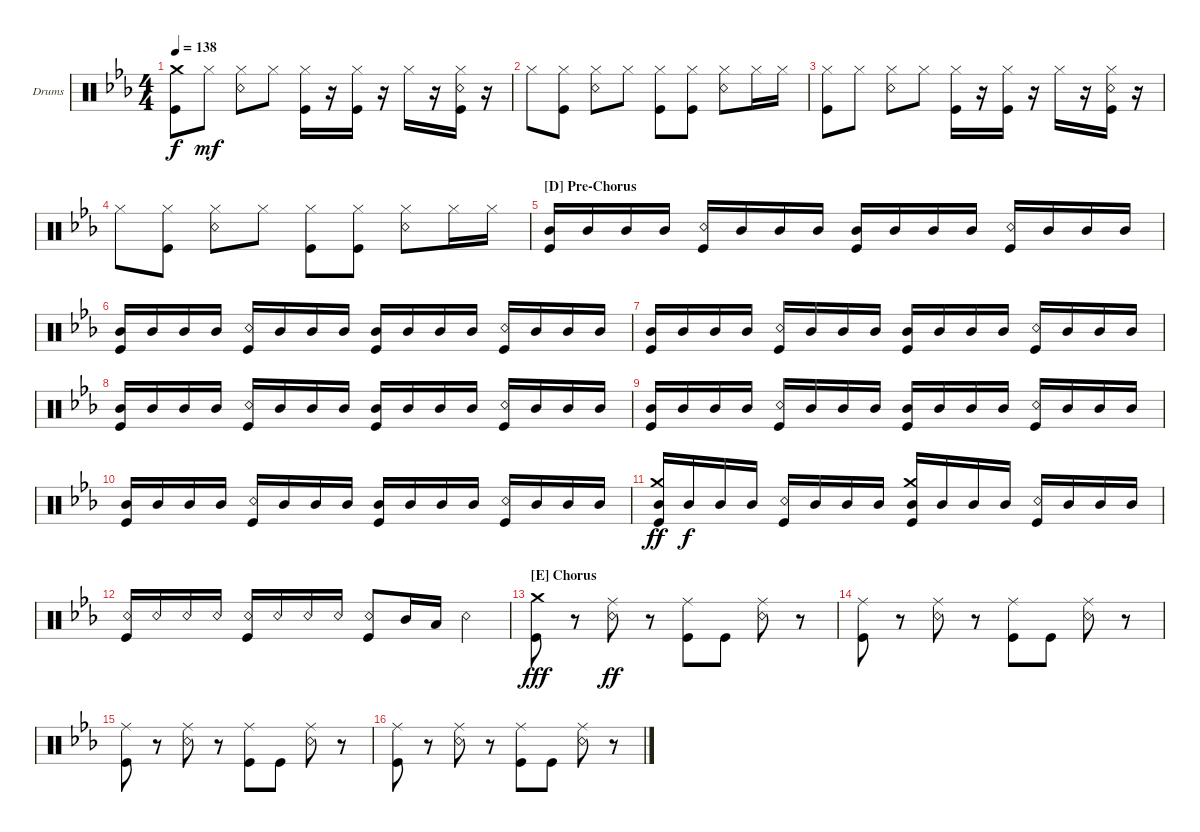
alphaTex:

\defaultSystemsLayout 4
\bracketExtendMode groupsimilarinstruments
\firstSystemTrackNameOrientation horizontal
\otherSystemsTrackNameOrientation horizontal
\track ("Drums" "Drums") {instrument percussion}
\staff {score}
\articulation defaults
\ts (4 4)
\tempo 138
\clef neutral
\ks eb
("Kick (hit)" "Crash medium (hit)").8{dy f} "Hi-Hat (closed)".8{dy mf} ("Hi-Hat (closed)" "Snare (rim shot)").8 "Hi-Hat (closed)".8 ("Hi-Hat (closed)" "Kick (hit)").16 r.16 ("Kick (hit)" "Hi-Hat (closed)").16 r.16 "Hi-Hat (closed)".16 r.16 ("Kick (hit)" "Hi-Hat (closed)" "Snare (rim shot)").16 r.16 |
"Hi-Hat (closed)".8 ("Kick (hit)" "Hi-Hat (closed)").8 ("Hi-Hat (closed)" "Snare (rim shot)").8 "Hi-Hat (closed)".8 ("Hi-Hat (closed)" "Kick (hit)").8 ("Kick (hit)" "Hi-Hat (closed)").8 ("Hi-Hat (closed)" "Snare (rim shot)").8 "Hi-Hat (closed)".16 "Hi-Hat (closed)".16 |
("Kick (hit)" "Hi-Hat (closed)").8 "Hi-Hat (closed)".8 ("Hi-Hat (closed)" "Snare (rim shot)").8 "Hi-Hat (closed)".8 ("Hi-Hat (closed)" "Kick (hit)").16 r.16 ("Kick (hit)" "Hi-Hat (closed)").16 r.16 "Hi-Hat (closed)".16 r.16 ("Kick (hit)" "Hi-Hat (closed)" "Snare (rim shot)").16 r.16 |
"Hi-Hat (closed)".8 ("Kick (hit)" "Hi-Hat (closed)").8 ("Hi-Hat (closed)" "Snare (rim shot)").8 "Hi-Hat (closed)".8 ("Hi-Hat (closed)" "Kick (hit)").8 ("Kick (hit)" "Hi-Hat (closed)").8 ("Hi-Hat (closed)" "Snare (rim shot)").8 "Hi-Hat (closed)".16 "Hi-Hat (closed)".16 |
\section ("D" "Pre-Chorus")
("Mid Tom (hit)" "Kick (hit)").16 "Mid Tom (hit)".16 "Mid Tom (hit)".16 "Mid Tom (hit)".16 ("Snare (rim shot)" "Kick (hit)").16 "Mid Tom (hit)".16 "Mid Tom (hit)".16 "Mid Tom (hit)".16 ("Mid Tom (hit)" "Kick (hit)").16 "Mid Tom (hit)".16 "Mid Tom (hit)".16 "Mid Tom (hit)".16 ("Snare (rim shot)" "Kick (hit)").16 "Mid Tom (hit)".16 "Mid Tom (hit)".16 "Mid Tom (hit)".16 |
("Mid Tom (hit)" "Kick (hit)").16 "Mid Tom (hit)".16 "Mid Tom (hit)".16 "Mid Tom (hit)".16 ("Snare (rim shot)" "Kick (hit)").16 "Mid Tom (hit)".16 "Mid Tom (hit)".16 "Mid Tom (hit)".16 ("Mid Tom (hit)" "Kick (hit)").16 "Mid Tom (hit)".16 "Mid Tom (hit)".16 "Mid Tom (hit)".16 ("Snare (rim shot)" "Kick (hit)").16 "Mid Tom (hit)".16 "Mid Tom (hit)".16 "Mid Tom (hit)".16 |
("Mid Tom (hit)" "Kick (hit)").16 "Mid Tom (hit)".16 "Mid Tom (hit)".16 "Mid Tom (hit)".16 ("Snare (rim shot)" "Kick (hit)").16 "Mid Tom (hit)".16 "Mid Tom (hit)".16 "Mid Tom (hit)".16 ("Mid Tom (hit)" "Kick (hit)").16 "Mid Tom (hit)".16 "Mid Tom (hit)".16 "Mid Tom (hit)".16 ("Snare (rim shot)" "Kick (hit)").16 "Mid Tom (hit)".16 "Mid Tom (hit)".16 "Mid Tom (hit)".16 |
("Mid Tom (hit)" "Kick (hit)").16 "Mid Tom (hit)".16 "Mid Tom (hit)".16 "Mid Tom (hit)".16 ("Snare (rim shot)" "Kick (hit)").16 "Mid Tom (hit)".16 "Mid Tom (hit)".16 "Mid Tom (hit)".16 ("Mid Tom (hit)" "Kick (hit)").16 "Mid Tom (hit)".16 "Mid Tom (hit)".16 "Mid Tom (hit)".16 ("Snare (rim shot)" "Kick (hit)").16 "Mid Tom (hit)".16 "Mid Tom (hit)".16 "Mid Tom (hit)".16 |
("Mid Tom (hit)" "Kick (hit)").16 "Mid Tom (hit)".16 "Mid Tom (hit)".16 "Mid Tom (hit)".16 ("Snare (rim shot)" "Kick (hit)").16 "Mid Tom (hit)".16 "Mid Tom (hit)".16 "Mid Tom (hit)".16 ("Mid Tom (hit)" "Kick (hit)").16 "Mid Tom (hit)".16 "Mid Tom (hit)".16 "Mid Tom (hit)".16 ("Snare (rim shot)" "Kick (hit)").16 "Mid Tom (hit)".16 "Mid Tom (hit)".16 "Mid Tom (hit)".16 |
("Mid Tom (hit)" "Kick (hit)").16 "Mid Tom (hit)".16 "Mid Tom (hit)".16 "Mid Tom (hit)".16 ("Snare (rim shot)" "Kick (hit)").16 "Mid Tom (hit)".16 "Mid Tom (hit)".16 "Mid Tom (hit)".16 ("Mid Tom (hit)" "Kick (hit)").16 "Mid Tom (hit)".16 "Mid Tom (hit)".16 "Mid Tom (hit)".16 ("Snare (rim shot)" "Kick (hit)").16 "Mid Tom (hit)".16 "Mid Tom (hit)".16 "Mid Tom (hit)".16 |
("Mid Tom (hit)" "Kick (hit)" "Crash medium (hit)").16{dy ff} "Mid Tom (hit)".16{dy f} "Mid Tom (hit)".16 "Mid Tom (hit)".16 ("Snare (rim shot)" "Kick (hit)").16 "Mid Tom (hit)".16 "Mid Tom (hit)".16 "Mid Tom (hit)".16 ("Mid Tom (hit)" "Kick (hit)" "Crash medium (hit)").16 "Mid Tom (hit)".16 "Mid Tom (hit)".16 "Mid Tom (hit)".16 ("Snare (rim shot)" "Kick (hit)").16 "Mid Tom (hit)".16 "Mid Tom (hit)".16 "Mid Tom (hit)".16 |
("Kick (hit)" "Snare (rim shot)").16 "Snare (rim shot)".16 "Snare (rim shot)".16 "Snare (rim shot)".16 ("Snare (rim shot)" "Kick (hit)").16 "Snare (rim shot)".16 "Snare (rim shot)".16 "Snare (rim shot)".16 ("Kick (hit)" "Snare (rim shot)").8 "Mid Tom (hit)".16 "Low Tom (hit)".16 "Snare (rim shot)".4 |
\section ("E" "Chorus")
("Kick (hit)" "Crash medium (hit)").8{dy fff} r.8 ("Ride (middle)" "Snare (rim shot)").8{dy ff} r.8 ("Ride (middle)" "Kick (hit)").8 "Kick (hit)".8 ("Ride (middle)" "Snare (rim shot)").8 r.8 |
("Kick (hit)" "Ride (middle)").8 r.8 ("Ride (middle)" "Snare (rim shot)").8 r.8 ("Ride (middle)" "Kick (hit)").8 "Kick (hit)".8 ("Ride (middle)" "Snare (rim shot)").8 r.8 |
("Kick (hit)" "Ride (middle)").8 r.8 ("Ride (middle)" "Snare (rim shot)").8 r.8 ("Ride (middle)" "Kick (hit)").8 "Kick (hit)".8 ("Ride (middle)" "Snare (rim shot)").8 r.8 |
("Kick (hit)" "Ride (middle)").8 r.8 ("Ride (middle)" "Snare (rim shot)").8 r.8 ("Ride (middle)" "Kick (hit)").8 "Kick (hit)".8 ("Ride (middle)" "Snare (rim shot)").8 r.8
